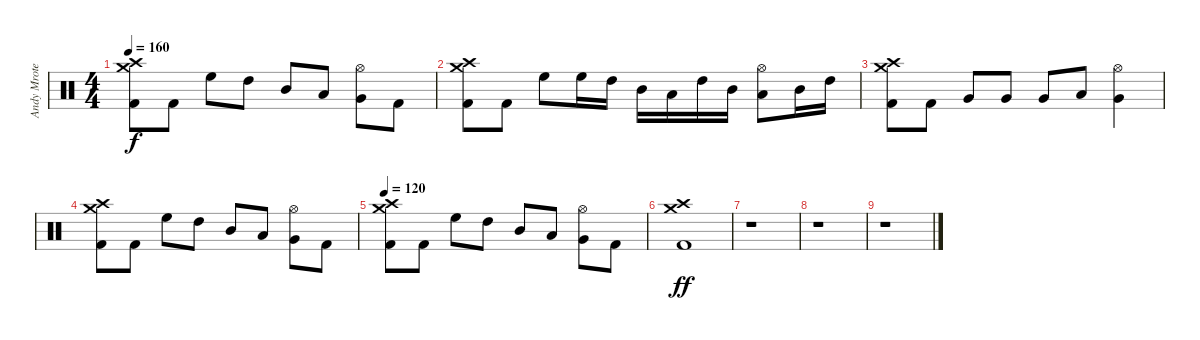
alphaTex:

\track ("Andy Mrotek (Drums)" "Andy Mrote") {instrument percussion}
\staff {score}
\articulation defaults
\ts (4 4)
\tempo 160
\clef neutral
\ks c
("Crash high (hit)" "Crash medium (hit)" "Kick (hit) 2").8{dy f} "Kick (hit) 2".8 "High Floor Tom (hit)".8 "High Tom (hit)".8 "Mid Tom (hit)".8 "Low Tom (hit)".8 ("Hi-Hat (open)" "Very Low Tom (hit)").8 "Kick (hit) 2".8 |
("Crash high (hit)" "Crash medium (hit)" "Kick (hit) 2").8 "Kick (hit) 2".8 "High Floor Tom (hit)".8 "High Floor Tom (hit)".16 "High Tom (hit)".16 "Mid Tom (hit)".16 "Low Tom (hit)".16 "High Tom (hit)".16 "Mid Tom (hit)".16 ("Hi-Hat (open)" "Low Tom (hit)").8 "Mid Tom (hit)".16 "High Tom (hit)".16 |
("Crash high (hit)" "Crash medium (hit)" "Kick (hit) 2").8 "Kick (hit) 2".8 "Very Low Tom (hit)".8 "Very Low Tom (hit)".8 "Very Low Tom (hit)".8 "Low Tom (hit)".8 ("Hi-Hat (open)" "Very Low Tom (hit)").4 |
("Crash high (hit)" "Crash medium (hit)" "Kick (hit) 2").8 "Kick (hit) 2".8 "High Floor Tom (hit)".8 "High Tom (hit)".8 "Mid Tom (hit)".8 "Low Tom (hit)".8 ("Hi-Hat (open)" "Very Low Tom (hit)").8 "Kick (hit) 2".8 |
\tempo 120
("Crash high (hit)" "Crash medium (hit)" "Kick (hit) 2").8 "Kick (hit) 2".8 "High Floor Tom (hit)".8 "High Tom (hit)".8 "Mid Tom (hit)".8 "Low Tom (hit)".8 ("Hi-Hat (open)" "Very Low Tom (hit)").8 "Kick (hit) 2".8 |
("Crash high (hit)" "Crash medium (hit)" "Kick (hit) 2").1{dy ff} |
r.1 |
r.1 |
r.1
